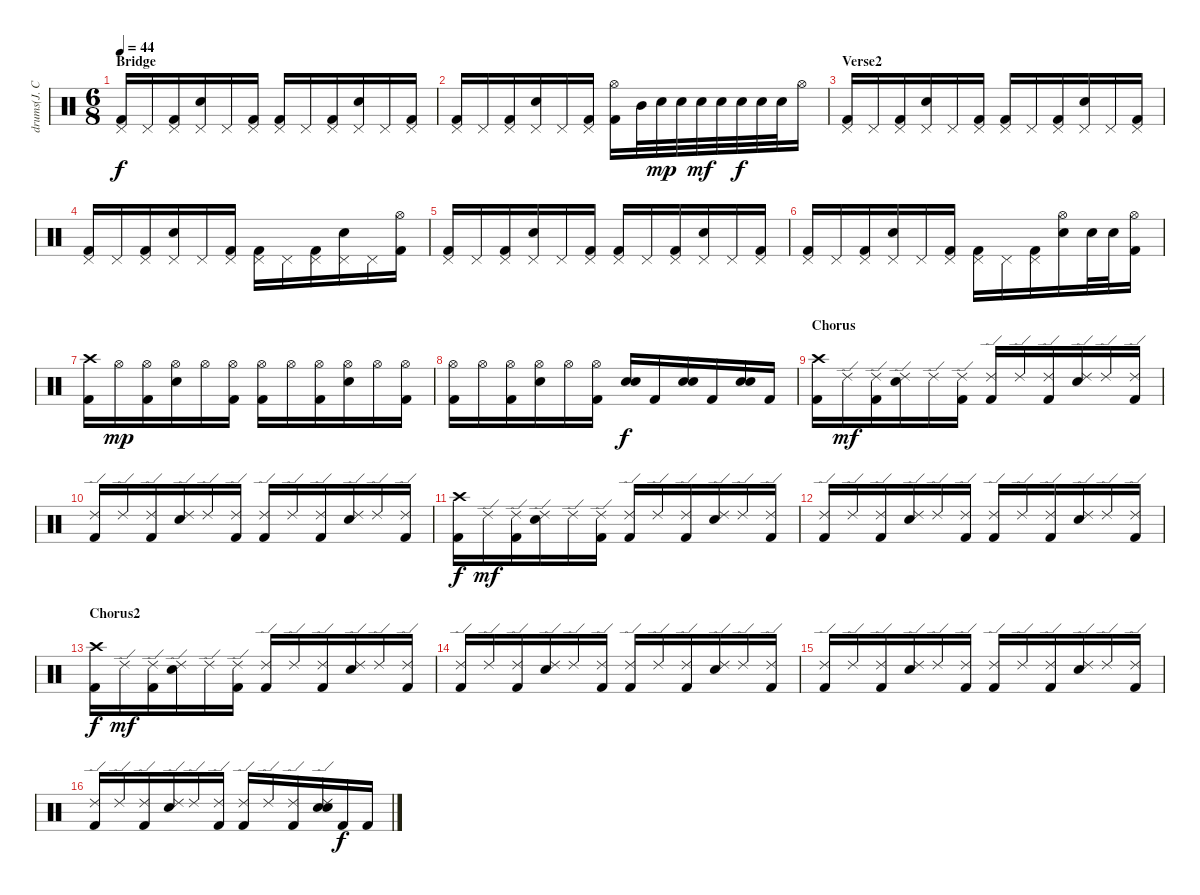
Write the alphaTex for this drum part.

\track ("drums(J. Cramer)" "drums(J. C") {instrument percussion}
\staff {score}
\articulation defaults
\ts (6 8)
\section ("" "Bridge")
\tempo 44
\clef neutral
\ks c
("Pedal Hi-Hat (hit)" "Kick (hit) 2").16{dy f} "Pedal Hi-Hat (hit)".16 ("Pedal Hi-Hat (hit)" "Kick (hit) 2").16 ("Pedal Hi-Hat (hit)" "Electric Snare (hit)").16 "Pedal Hi-Hat (hit)".16 ("Pedal Hi-Hat (hit)" "Kick (hit) 2").16 ("Pedal Hi-Hat (hit)" "Kick (hit) 2").16 "Pedal Hi-Hat (hit)".16 ("Pedal Hi-Hat (hit)" "Kick (hit) 2").16 ("Pedal Hi-Hat (hit)" "Electric Snare (hit)").16 "Pedal Hi-Hat (hit)".16 ("Pedal Hi-Hat (hit)" "Kick (hit) 2").16 |
("Pedal Hi-Hat (hit)" "Kick (hit) 2").16 "Pedal Hi-Hat (hit)".16 ("Pedal Hi-Hat (hit)" "Kick (hit) 2").16 ("Pedal Hi-Hat (hit)" "Electric Snare (hit)").16 "Pedal Hi-Hat (hit)".16 ("Pedal Hi-Hat (hit)" "Kick (hit) 2").16 ("Hi-Hat (open)" "Kick (hit) 2").16 "Mid Tom (hit)".32 "Electric Snare (hit)".32{dy mp} "Electric Snare (hit)".32 "Electric Snare (hit)".32{dy mf} "Electric Snare (hit)".32 "Electric Snare (hit)".32{dy f} "Electric Snare (hit)".32 "Electric Snare (hit)".32 "Hi-Hat (open)".16 |
\section ("" "Verse2")
("Pedal Hi-Hat (hit)" "Kick (hit) 2").16 "Pedal Hi-Hat (hit)".16 ("Pedal Hi-Hat (hit)" "Kick (hit) 2").16 ("Pedal Hi-Hat (hit)" "Electric Snare (hit)").16 "Pedal Hi-Hat (hit)".16 ("Pedal Hi-Hat (hit)" "Kick (hit) 2").16 ("Pedal Hi-Hat (hit)" "Kick (hit) 2").16 "Pedal Hi-Hat (hit)".16 ("Pedal Hi-Hat (hit)" "Kick (hit) 2").16 ("Pedal Hi-Hat (hit)" "Electric Snare (hit)").16 "Pedal Hi-Hat (hit)".16 ("Pedal Hi-Hat (hit)" "Kick (hit) 2").16 |
("Pedal Hi-Hat (hit)" "Kick (hit) 2").16 "Pedal Hi-Hat (hit)".16 ("Pedal Hi-Hat (hit)" "Kick (hit) 2").16 ("Pedal Hi-Hat (hit)" "Electric Snare (hit)").16 "Pedal Hi-Hat (hit)".16 ("Pedal Hi-Hat (hit)" "Kick (hit) 2").16 ("Pedal Hi-Hat (hit)" "Kick (hit) 2").16 "Pedal Hi-Hat (hit)".16 ("Pedal Hi-Hat (hit)" "Kick (hit) 2").16 ("Pedal Hi-Hat (hit)" "Electric Snare (hit)").16 "Pedal Hi-Hat (hit)".16 ("Hi-Hat (open)" "Kick (hit) 2").16 |
("Pedal Hi-Hat (hit)" "Kick (hit) 2").16 "Pedal Hi-Hat (hit)".16 ("Pedal Hi-Hat (hit)" "Kick (hit) 2").16 ("Pedal Hi-Hat (hit)" "Electric Snare (hit)").16 "Pedal Hi-Hat (hit)".16 ("Pedal Hi-Hat (hit)" "Kick (hit) 2").16 ("Pedal Hi-Hat (hit)" "Kick (hit) 2").16 "Pedal Hi-Hat (hit)".16 ("Pedal Hi-Hat (hit)" "Kick (hit) 2").16 ("Pedal Hi-Hat (hit)" "Electric Snare (hit)").16 "Pedal Hi-Hat (hit)".16 ("Pedal Hi-Hat (hit)" "Kick (hit) 2").16 |
("Pedal Hi-Hat (hit)" "Kick (hit) 2").16 "Pedal Hi-Hat (hit)".16 ("Pedal Hi-Hat (hit)" "Kick (hit) 2").16 ("Pedal Hi-Hat (hit)" "Electric Snare (hit)").16 "Pedal Hi-Hat (hit)".16 ("Pedal Hi-Hat (hit)" "Kick (hit) 2").16 ("Pedal Hi-Hat (hit)" "Kick (hit) 2").16 "Pedal Hi-Hat (hit)".16 ("Pedal Hi-Hat (hit)" "Kick (hit) 2").16 ("Hi-Hat (open)" "Electric Snare (hit)").16 "Electric Snare (hit)".32 "Electric Snare (hit)".32 ("Hi-Hat (open)" "Kick (hit) 2").16 |
("Kick (hit) 2" "Crash high (hit)").16 "Hi-Hat (open)".16{dy mp} ("Hi-Hat (open)" "Kick (hit) 2").16 ("Hi-Hat (open)" "Electric Snare (hit)").16 "Hi-Hat (open)".16 ("Hi-Hat (open)" "Kick (hit) 2").16 ("Hi-Hat (open)" "Kick (hit) 2").16 "Hi-Hat (open)".16 ("Hi-Hat (open)" "Kick (hit) 2").16 ("Hi-Hat (open)" "Electric Snare (hit)").16 "Hi-Hat (open)".16 ("Hi-Hat (open)" "Kick (hit) 2").16 |
("Hi-Hat (open)" "Kick (hit) 2").16 "Hi-Hat (open)".16 ("Hi-Hat (open)" "Kick (hit) 2").16 ("Hi-Hat (open)" "Electric Snare (hit)").16 "Hi-Hat (open)".16 ("Hi-Hat (open)" "Kick (hit) 2").16 ("Electric Snare (hit)" "Snare (hit) 2").16{dy f} "Kick (hit) 2".16 ("Electric Snare (hit)" "Snare (hit) 2").16 "Kick (hit) 2".16 ("Electric Snare (hit)" "Snare (hit) 2").16 "Kick (hit) 2".16 |
\section ("" "Chorus")
("Kick (hit) 2" "Crash high (hit)").16 "Ride (edge) 2".16{dy mf} ("Ride (edge) 2" "Kick (hit) 2").16 ("Ride (edge) 2" "Electric Snare (hit)").16 "Ride (edge) 2".16 ("Ride (edge) 2" "Kick (hit) 2").16 ("Ride (edge) 2" "Kick (hit) 2").16 "Ride (edge) 2".16 ("Ride (edge) 2" "Kick (hit) 2").16 ("Ride (edge) 2" "Electric Snare (hit)").16 "Ride (edge) 2".16 ("Ride (edge) 2" "Kick (hit) 2").16 |
("Ride (edge) 2" "Kick (hit) 2").16 "Ride (edge) 2".16 ("Ride (edge) 2" "Kick (hit) 2").16 ("Ride (edge) 2" "Electric Snare (hit)").16 "Ride (edge) 2".16 ("Ride (edge) 2" "Kick (hit) 2").16 ("Ride (edge) 2" "Kick (hit) 2").16 "Ride (edge) 2".16 ("Ride (edge) 2" "Kick (hit) 2").16 ("Ride (edge) 2" "Electric Snare (hit)").16 "Ride (edge) 2".16 ("Ride (edge) 2" "Kick (hit) 2").16 |
("Kick (hit) 2" "Crash high (hit)").16{dy f} "Ride (edge) 2".16{dy mf} ("Ride (edge) 2" "Kick (hit) 2").16 ("Ride (edge) 2" "Electric Snare (hit)").16 "Ride (edge) 2".16 ("Ride (edge) 2" "Kick (hit) 2").16 ("Ride (edge) 2" "Kick (hit) 2").16 "Ride (edge) 2".16 ("Ride (edge) 2" "Kick (hit) 2").16 ("Ride (edge) 2" "Electric Snare (hit)").16 "Ride (edge) 2".16 ("Ride (edge) 2" "Kick (hit) 2").16 |
("Ride (edge) 2" "Kick (hit) 2").16 "Ride (edge) 2".16 ("Ride (edge) 2" "Kick (hit) 2").16 ("Ride (edge) 2" "Electric Snare (hit)").16 "Ride (edge) 2".16 ("Ride (edge) 2" "Kick (hit) 2").16 ("Ride (edge) 2" "Kick (hit) 2").16 "Ride (edge) 2".16 ("Ride (edge) 2" "Kick (hit) 2").16 ("Ride (edge) 2" "Electric Snare (hit)").16 "Ride (edge) 2".16 ("Ride (edge) 2" "Kick (hit) 2").16 |
\section ("" "Chorus2")
("Kick (hit) 2" "Crash high (hit)").16{dy f} "Ride (edge) 2".16{dy mf} ("Ride (edge) 2" "Kick (hit) 2").16 ("Ride (edge) 2" "Electric Snare (hit)").16 "Ride (edge) 2".16 ("Ride (edge) 2" "Kick (hit) 2").16 ("Ride (edge) 2" "Kick (hit) 2").16 "Ride (edge) 2".16 ("Ride (edge) 2" "Kick (hit) 2").16 ("Ride (edge) 2" "Electric Snare (hit)").16 "Ride (edge) 2".16 ("Ride (edge) 2" "Kick (hit) 2").16 |
("Ride (edge) 2" "Kick (hit) 2").16 "Ride (edge) 2".16 ("Ride (edge) 2" "Kick (hit) 2").16 ("Ride (edge) 2" "Electric Snare (hit)").16 "Ride (edge) 2".16 ("Ride (edge) 2" "Kick (hit) 2").16 ("Ride (edge) 2" "Kick (hit) 2").16 "Ride (edge) 2".16 ("Ride (edge) 2" "Kick (hit) 2").16 ("Ride (edge) 2" "Electric Snare (hit)").16 "Ride (edge) 2".16 ("Ride (edge) 2" "Kick (hit) 2").16 |
("Ride (edge) 2" "Kick (hit) 2").16 "Ride (edge) 2".16 ("Ride (edge) 2" "Kick (hit) 2").16 ("Ride (edge) 2" "Electric Snare (hit)").16 "Ride (edge) 2".16 ("Ride (edge) 2" "Kick (hit) 2").16 ("Ride (edge) 2" "Kick (hit) 2").16 "Ride (edge) 2".16 ("Ride (edge) 2" "Kick (hit) 2").16 ("Ride (edge) 2" "Electric Snare (hit)").16 "Ride (edge) 2".16 ("Ride (edge) 2" "Kick (hit) 2").16 |
("Ride (edge) 2" "Kick (hit) 2").16 "Ride (edge) 2".16 ("Ride (edge) 2" "Kick (hit) 2").16 ("Ride (edge) 2" "Electric Snare (hit)").16 "Ride (edge) 2".16 ("Ride (edge) 2" "Kick (hit) 2").16 ("Ride (edge) 2" "Kick (hit) 2").16 "Ride (edge) 2".16 ("Ride (edge) 2" "Kick (hit) 2").16 ("Ride (edge) 2" "Electric Snare (hit)" "Snare (hit) 2").16 "Kick (hit) 2".16{dy f} "Kick (hit) 2".16
